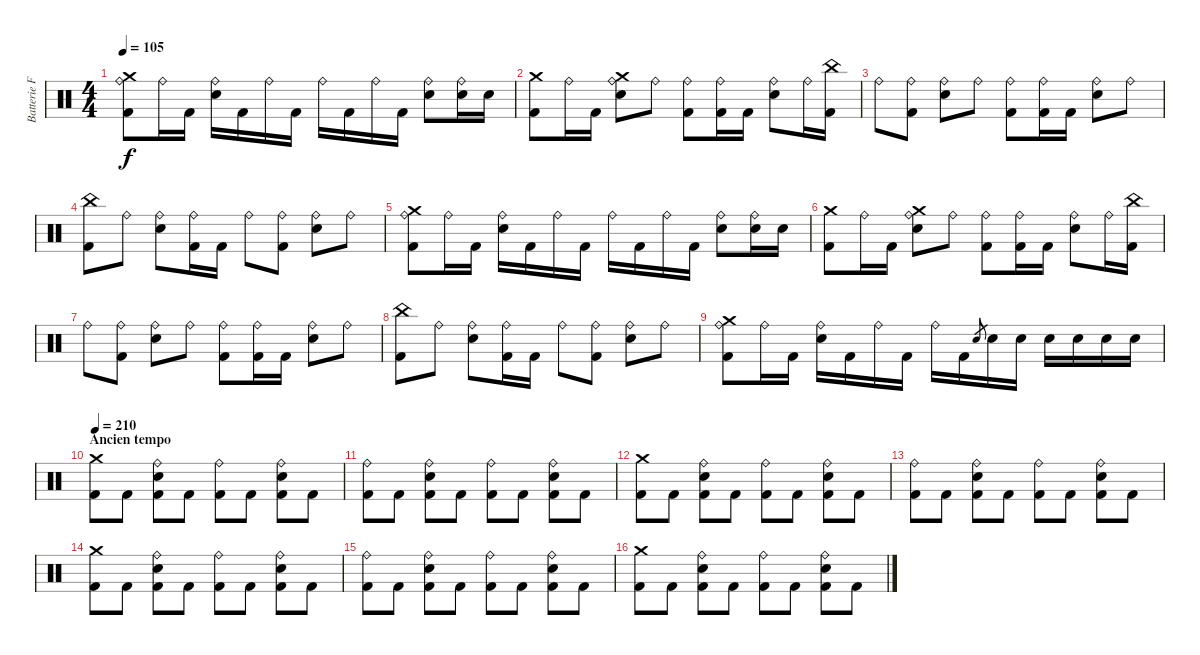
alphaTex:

\track ("Batterie Franck" "Batterie F") {instrument percussion}
\staff {score}
\articulation defaults
\ts (4 4)
\tempo 105
\clef neutral
\ks c
("Crash medium (hit)" "Ride (bell)" "Kick (hit) 2").8{dy f} "Ride (bell)".16 "Kick (hit) 2".16 ("Ride (bell)" "Snare (hit) 2").16 "Kick (hit) 2".16 "Ride (bell)".16 "Kick (hit) 2".16 "Ride (bell)".16 "Kick (hit) 2".16 "Ride (bell)".16 "Kick (hit) 2".16 ("Ride (bell)" "Snare (hit) 2").8 ("Ride (bell)" "Snare (hit) 2").16 "Snare (hit) 2".16 |
("Crash medium (hit)" "Kick (hit) 2").8 "Ride (bell)".16 "Kick (hit) 2".16 ("Crash medium (hit)" "Ride (bell)" "Snare (hit) 2").8 "Ride (bell)".8 ("Ride (bell)" "Kick (hit) 2").8 ("Ride (bell)" "Kick (hit) 2").16 "Kick (hit) 2".16 ("Ride (bell)" "Snare (hit) 2").8 "Ride (bell)".16 ("China (hit)" "Kick (hit) 2").16 |
"Ride (bell)".8 ("Ride (bell)" "Kick (hit) 2").8 ("Ride (bell)" "Snare (hit) 2").8 "Ride (bell)".8 ("Ride (bell)" "Kick (hit) 2").8 ("Ride (bell)" "Kick (hit) 2").16 "Kick (hit) 2".16 ("Ride (bell)" "Snare (hit) 2").8 "Ride (bell)".8 |
("China (hit)" "Kick (hit) 2").8 "Ride (bell)".8 ("Ride (bell)" "Snare (hit) 2").8 ("Ride (bell)" "Kick (hit) 2").16 "Kick (hit) 2".16 "Ride (bell)".8 ("Ride (bell)" "Kick (hit) 2").8 ("Ride (bell)" "Snare (hit) 2").8 "Ride (bell)".8 |
("Crash medium (hit)" "Ride (bell)" "Kick (hit) 2").8 "Ride (bell)".16 "Kick (hit) 2".16 ("Ride (bell)" "Snare (hit) 2").16 "Kick (hit) 2".16 "Ride (bell)".16 "Kick (hit) 2".16 "Ride (bell)".16 "Kick (hit) 2".16 "Ride (bell)".16 "Kick (hit) 2".16 ("Ride (bell)" "Snare (hit) 2").8 ("Ride (bell)" "Snare (hit) 2").16 "Snare (hit) 2".16 |
("Crash medium (hit)" "Kick (hit) 2").8 "Ride (bell)".16 "Kick (hit) 2".16 ("Crash medium (hit)" "Ride (bell)" "Snare (hit) 2").8 "Ride (bell)".8 ("Ride (bell)" "Kick (hit) 2").8 ("Ride (bell)" "Kick (hit) 2").16 "Kick (hit) 2".16 ("Ride (bell)" "Snare (hit) 2").8 "Ride (bell)".16 ("China (hit)" "Kick (hit) 2").16 |
"Ride (bell)".8 ("Ride (bell)" "Kick (hit) 2").8 ("Ride (bell)" "Snare (hit) 2").8 "Ride (bell)".8 ("Ride (bell)" "Kick (hit) 2").8 ("Ride (bell)" "Kick (hit) 2").16 "Kick (hit) 2".16 ("Ride (bell)" "Snare (hit) 2").8 "Ride (bell)".8 |
("China (hit)" "Kick (hit) 2").8 "Ride (bell)".8 ("Ride (bell)" "Snare (hit) 2").8 ("Ride (bell)" "Kick (hit) 2").16 "Kick (hit) 2".16 "Ride (bell)".8 ("Ride (bell)" "Kick (hit) 2").8 ("Ride (bell)" "Snare (hit) 2").8 "Ride (bell)".8 |
("Crash medium (hit)" "Ride (bell)" "Kick (hit) 2").8 "Ride (bell)".16 "Kick (hit) 2".16 ("Ride (bell)" "Snare (hit) 2").16 "Kick (hit) 2".16 "Ride (bell)".16 "Kick (hit) 2".16 "Ride (bell)".16 "Kick (hit) 2".16 "Snare (hit) 2".8{gr} "Snare (hit) 2".16 "Snare (hit) 2".16 "Snare (hit) 2".16 "Snare (hit) 2".16 "Snare (hit) 2".16 "Snare (hit) 2".16 |
\section ("" "Ancien tempo")
\tempo 210
("Crash medium (hit)" "Kick (hit) 2").8 "Kick (hit) 2".8 ("Ride (bell)" "Snare (hit) 2" "Kick (hit) 2").8 "Kick (hit) 2".8 ("Ride (bell)" "Kick (hit) 2").8 "Kick (hit) 2".8 ("Ride (bell)" "Snare (hit) 2" "Kick (hit) 2").8 "Kick (hit) 2".8 |
("Ride (bell)" "Kick (hit) 2").8 "Kick (hit) 2".8 ("Ride (bell)" "Snare (hit) 2" "Kick (hit) 2").8 "Kick (hit) 2".8 ("Ride (bell)" "Kick (hit) 2").8 "Kick (hit) 2".8 ("Ride (bell)" "Snare (hit) 2" "Kick (hit) 2").8 "Kick (hit) 2".8 |
("Crash medium (hit)" "Kick (hit) 2").8 "Kick (hit) 2".8 ("Ride (bell)" "Snare (hit) 2" "Kick (hit) 2").8 "Kick (hit) 2".8 ("Ride (bell)" "Kick (hit) 2").8 "Kick (hit) 2".8 ("Ride (bell)" "Snare (hit) 2" "Kick (hit) 2").8 "Kick (hit) 2".8 |
("Ride (bell)" "Kick (hit) 2").8 "Kick (hit) 2".8 ("Ride (bell)" "Snare (hit) 2" "Kick (hit) 2").8 "Kick (hit) 2".8 ("Ride (bell)" "Kick (hit) 2").8 "Kick (hit) 2".8 ("Ride (bell)" "Snare (hit) 2" "Kick (hit) 2").8 "Kick (hit) 2".8 |
("Crash medium (hit)" "Kick (hit) 2").8 "Kick (hit) 2".8 ("Ride (bell)" "Snare (hit) 2" "Kick (hit) 2").8 "Kick (hit) 2".8 ("Ride (bell)" "Kick (hit) 2").8 "Kick (hit) 2".8 ("Ride (bell)" "Snare (hit) 2" "Kick (hit) 2").8 "Kick (hit) 2".8 |
("Ride (bell)" "Kick (hit) 2").8 "Kick (hit) 2".8 ("Ride (bell)" "Snare (hit) 2" "Kick (hit) 2").8 "Kick (hit) 2".8 ("Ride (bell)" "Kick (hit) 2").8 "Kick (hit) 2".8 ("Ride (bell)" "Snare (hit) 2" "Kick (hit) 2").8 "Kick (hit) 2".8 |
("Crash medium (hit)" "Kick (hit) 2").8 "Kick (hit) 2".8 ("Ride (bell)" "Snare (hit) 2" "Kick (hit) 2").8 "Kick (hit) 2".8 ("Ride (bell)" "Kick (hit) 2").8 "Kick (hit) 2".8 ("Ride (bell)" "Snare (hit) 2" "Kick (hit) 2").8 "Kick (hit) 2".8
